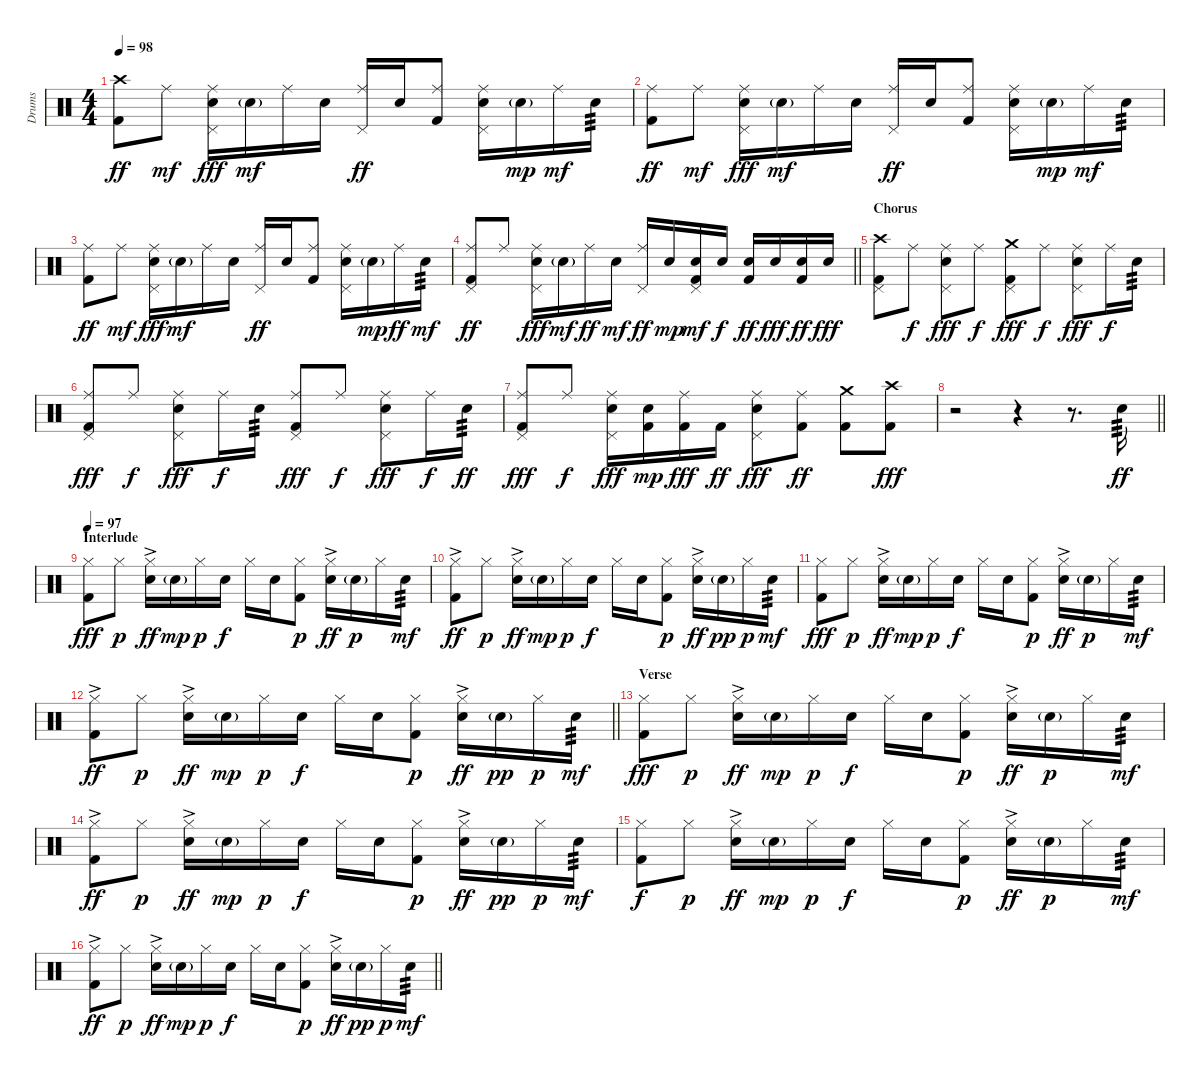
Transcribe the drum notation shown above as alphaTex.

\track ("Drums" "Drums") {instrument percussion}
\staff {score}
\articulation defaults
\ts (4 4)
\tempo 98
\clef neutral
\ks c
("Crash high (hit)" "Kick (hit) 2").8{dy ff} "Ride (middle)".8{dy mf} ("Ride (middle)" "Pedal Hi-Hat (hit)" "Electric Snare (hit)").16{dy fff} "Electric Snare (hit)"{g}.16{dy mf} "Ride (middle)".16 "Electric Snare (hit)".16 ("Ride (middle)" "Pedal Hi-Hat (hit)").16{dy ff} "Electric Snare (hit)".16 ("Ride (middle)" "Kick (hit) 2").8 ("Ride (middle)" "Pedal Hi-Hat (hit)" "Electric Snare (hit)").16 "Electric Snare (hit)"{g}.16{dy mp} "Ride (middle)".16{dy mf} "Electric Snare (hit)".16{tp 3} |
("Ride (middle)" "Kick (hit) 2").8{dy ff} "Ride (middle)".8{dy mf} ("Ride (middle)" "Pedal Hi-Hat (hit)" "Electric Snare (hit)").16{dy fff} "Electric Snare (hit)"{g}.16{dy mf} "Ride (middle)".16 "Electric Snare (hit)".16 ("Ride (middle)" "Pedal Hi-Hat (hit)").16{dy ff} "Electric Snare (hit)".16 ("Ride (middle)" "Kick (hit) 2").8 ("Ride (middle)" "Pedal Hi-Hat (hit)" "Electric Snare (hit)").16 "Electric Snare (hit)"{g}.16{dy mp} "Ride (middle)".16{dy mf} "Electric Snare (hit)".16{tp 3} |
("Ride (middle)" "Kick (hit) 2").8{dy ff} "Ride (middle)".8{dy mf} ("Ride (middle)" "Pedal Hi-Hat (hit)" "Electric Snare (hit)").16{dy fff} "Electric Snare (hit)"{g}.16{dy mf} "Ride (middle)".16 "Electric Snare (hit)".16 ("Ride (middle)" "Pedal Hi-Hat (hit)").16{dy ff} "Electric Snare (hit)".16 ("Ride (middle)" "Kick (hit) 2").8 ("Ride (middle)" "Pedal Hi-Hat (hit)" "Electric Snare (hit)").16 "Electric Snare (hit)"{g}.16{dy mp} "Ride (middle)".16{dy ff} "Electric Snare (hit)".16{tp 3 dy mf} |
\barLineRight lightlight
("Ride (middle)" "Pedal Hi-Hat (hit)" "Kick (hit) 2").8{dy ff} "Ride (middle)".8 ("Ride (middle)" "Pedal Hi-Hat (hit)" "Electric Snare (hit)").16{dy fff} "Electric Snare (hit)"{g}.16{dy mf} "Ride (middle)".16{dy ff} "Electric Snare (hit)".16{dy mf} ("Ride (middle)" "Pedal Hi-Hat (hit)").16{dy ff} "Electric Snare (hit)".16{dy mp} ("Pedal Hi-Hat (hit)" "Electric Snare (hit)" "Kick (hit) 2").16{dy mf} "Electric Snare (hit)".16{dy f} ("Electric Snare (hit)" "Kick (hit) 2").16{dy ff} "Electric Snare (hit)".16{dy fff} ("Electric Snare (hit)" "Kick (hit) 2").16{dy ff} "Electric Snare (hit)".16{dy fff} |
\section ("" "Chorus")
("Crash high (hit)" "Pedal Hi-Hat (hit)" "Kick (hit) 2").8 "Ride (middle)".8{dy f} ("Ride (middle)" "Pedal Hi-Hat (hit)" "Electric Snare (hit)").8{dy fff} "Ride (middle)".8{dy f} ("Crash medium (hit)" "Pedal Hi-Hat (hit)" "Kick (hit) 2").8{dy fff} "Ride (middle)".8{dy f} ("Ride (middle)" "Pedal Hi-Hat (hit)" "Electric Snare (hit)").8{dy fff} "Ride (middle)".16{dy f} "Electric Snare (hit)".16{tp 3} |
("Ride (middle)" "Pedal Hi-Hat (hit)" "Kick (hit) 2").8{dy fff} "Ride (middle)".8{dy f} ("Ride (middle)" "Pedal Hi-Hat (hit)" "Electric Snare (hit)").8{dy fff} "Ride (middle)".16{dy f} "Electric Snare (hit)".16{tp 3} ("Ride (middle)" "Pedal Hi-Hat (hit)" "Kick (hit) 2").8{dy fff} "Ride (middle)".8{dy f} ("Ride (middle)" "Pedal Hi-Hat (hit)" "Electric Snare (hit)").8{dy fff} "Ride (middle)".16{dy f} "Electric Snare (hit)".16{tp 3 dy ff} |
("Ride (middle)" "Pedal Hi-Hat (hit)" "Kick (hit) 2").8{dy fff} "Ride (middle)".8{dy f} ("Ride (middle)" "Pedal Hi-Hat (hit)" "Electric Snare (hit)").16{dy fff} ("Electric Snare (hit)" "Kick (hit) 2").16{dy mp} ("Ride (middle)" "Kick (hit) 2").16{dy fff} "Kick (hit) 2".16{dy ff} ("Ride (middle)" "Pedal Hi-Hat (hit)" "Electric Snare (hit)").8{dy fff} ("Ride (middle)" "Kick (hit) 2").8{dy ff} ("Crash medium (hit)" "Kick (hit) 2").8 ("Crash high (hit)" "Kick (hit) 2").8{dy fff} |
\barLineRight lightlight
r.2 r.4 r.8{d} "Electric Snare (hit)".16{tp 3 dy ff} |
\section ("" "Interlude")
\tempo 97
("Hi-Hat (closed)" "Kick (hit) 2").8{dy fff} "Hi-Hat (closed)".8{dy p} ("Hi-Hat (closed)"{ac} "Electric Snare (hit)"{ac}).16{dy ff} "Electric Snare (hit)"{g}.16{dy mp} "Hi-Hat (closed)".16{dy p} "Electric Snare (hit)".16{dy f} "Hi-Hat (closed)".16 "Electric Snare (hit)".16 ("Hi-Hat (closed)" "Kick (hit) 2").8{dy p} ("Hi-Hat (closed)"{ac} "Electric Snare (hit)"{ac}).16{dy ff} "Electric Snare (hit)"{g}.16{dy p} "Hi-Hat (closed)".16 "Electric Snare (hit)".16{tp 3 dy mf} |
("Hi-Hat (closed)"{ac} "Kick (hit) 2").8{dy ff} "Hi-Hat (closed)".8{dy p} ("Hi-Hat (closed)"{ac} "Electric Snare (hit)"{ac}).16{dy ff} "Electric Snare (hit)"{g}.16{dy mp} "Hi-Hat (closed)".16{dy p} "Electric Snare (hit)".16{dy f} "Hi-Hat (closed)".16 "Electric Snare (hit)".16 ("Hi-Hat (closed)" "Kick (hit) 2").8{dy p} ("Hi-Hat (closed)"{ac} "Electric Snare (hit)"{ac}).16{dy ff} "Electric Snare (hit)"{g}.16{dy pp} "Hi-Hat (closed)".16{dy p} "Electric Snare (hit)".16{tp 3 dy mf} |
("Hi-Hat (closed)" "Kick (hit) 2").8{dy fff} "Hi-Hat (closed)".8{dy p} ("Hi-Hat (closed)"{ac} "Electric Snare (hit)"{ac}).16{dy ff} "Electric Snare (hit)"{g}.16{dy mp} "Hi-Hat (closed)".16{dy p} "Electric Snare (hit)".16{dy f} "Hi-Hat (closed)".16 "Electric Snare (hit)".16 ("Hi-Hat (closed)" "Kick (hit) 2").8{dy p} ("Hi-Hat (closed)"{ac} "Electric Snare (hit)"{ac}).16{dy ff} "Electric Snare (hit)"{g}.16{dy p} "Hi-Hat (closed)".16 "Electric Snare (hit)".16{tp 3 dy mf} |
\barLineRight lightlight
("Hi-Hat (closed)"{ac} "Kick (hit) 2").8{dy ff} "Hi-Hat (closed)".8{dy p} ("Hi-Hat (closed)"{ac} "Electric Snare (hit)"{ac}).16{dy ff} "Electric Snare (hit)"{g}.16{dy mp} "Hi-Hat (closed)".16{dy p} "Electric Snare (hit)".16{dy f} "Hi-Hat (closed)".16 "Electric Snare (hit)".16 ("Hi-Hat (closed)" "Kick (hit) 2").8{dy p} ("Hi-Hat (closed)"{ac} "Electric Snare (hit)"{ac}).16{dy ff} "Electric Snare (hit)"{g}.16{dy pp} "Hi-Hat (closed)".16{dy p} "Electric Snare (hit)".16{tp 3 dy mf} |
\section ("" "Verse")
("Hi-Hat (closed)" "Kick (hit) 2").8{dy fff} "Hi-Hat (closed)".8{dy p} ("Hi-Hat (closed)"{ac} "Electric Snare (hit)"{ac}).16{dy ff} "Electric Snare (hit)"{g}.16{dy mp} "Hi-Hat (closed)".16{dy p} "Electric Snare (hit)".16{dy f} "Hi-Hat (closed)".16 "Electric Snare (hit)".16 ("Hi-Hat (closed)" "Kick (hit) 2").8{dy p} ("Hi-Hat (closed)"{ac} "Electric Snare (hit)"{ac}).16{dy ff} "Electric Snare (hit)"{g}.16{dy p} "Hi-Hat (closed)".16 "Electric Snare (hit)".16{tp 3 dy mf} |
("Hi-Hat (closed)"{ac} "Kick (hit) 2").8{dy ff} "Hi-Hat (closed)".8{dy p} ("Hi-Hat (closed)"{ac} "Electric Snare (hit)"{ac}).16{dy ff} "Electric Snare (hit)"{g}.16{dy mp} "Hi-Hat (closed)".16{dy p} "Electric Snare (hit)".16{dy f} "Hi-Hat (closed)".16 "Electric Snare (hit)".16 ("Hi-Hat (closed)" "Kick (hit) 2").8{dy p} ("Hi-Hat (closed)"{ac} "Electric Snare (hit)"{ac}).16{dy ff} "Electric Snare (hit)"{g}.16{dy pp} "Hi-Hat (closed)".16{dy p} "Electric Snare (hit)".16{tp 3 dy mf} |
("Hi-Hat (closed)" "Kick (hit) 2").8{dy f} "Hi-Hat (closed)".8{dy p} ("Hi-Hat (closed)"{ac} "Electric Snare (hit)"{ac}).16{dy ff} "Electric Snare (hit)"{g}.16{dy mp} "Hi-Hat (closed)".16{dy p} "Electric Snare (hit)".16{dy f} "Hi-Hat (closed)".16 "Electric Snare (hit)".16 ("Hi-Hat (closed)" "Kick (hit) 2").8{dy p} ("Hi-Hat (closed)"{ac} "Electric Snare (hit)"{ac}).16{dy ff} "Electric Snare (hit)"{g}.16{dy p} "Hi-Hat (closed)".16 "Electric Snare (hit)".16{tp 3 dy mf} |
\barLineRight lightlight
("Hi-Hat (closed)"{ac} "Kick (hit) 2").8{dy ff} "Hi-Hat (closed)".8{dy p} ("Hi-Hat (closed)"{ac} "Electric Snare (hit)"{ac}).16{dy ff} "Electric Snare (hit)"{g}.16{dy mp} "Hi-Hat (closed)".16{dy p} "Electric Snare (hit)".16{dy f} "Hi-Hat (closed)".16 "Electric Snare (hit)".16 ("Hi-Hat (closed)" "Kick (hit) 2").8{dy p} ("Hi-Hat (closed)"{ac} "Electric Snare (hit)"{ac}).16{dy ff} "Electric Snare (hit)"{g}.16{dy pp} "Hi-Hat (closed)".16{dy p} "Electric Snare (hit)".16{tp 3 dy mf}
